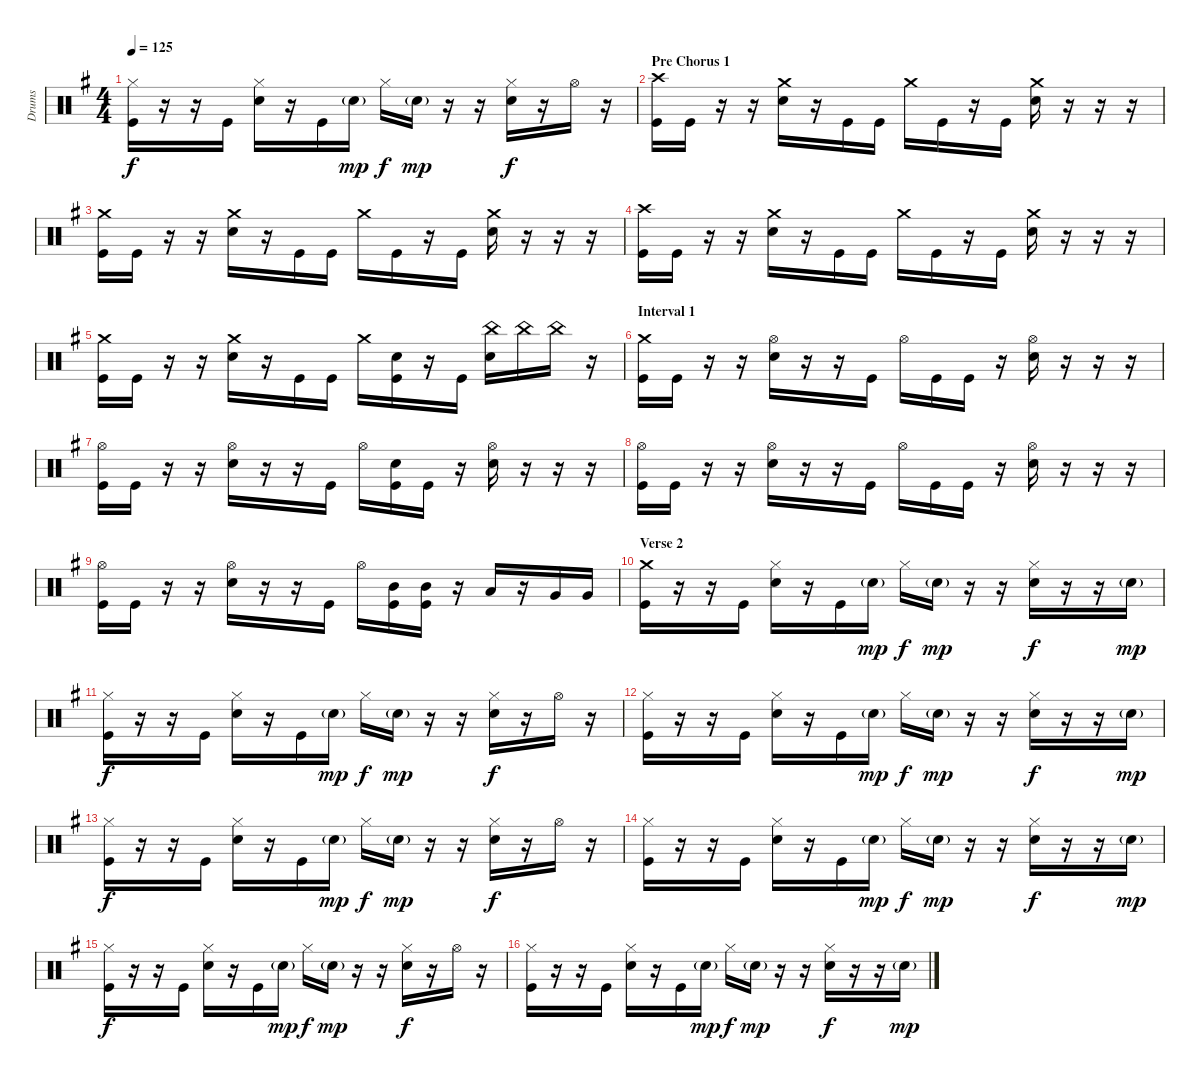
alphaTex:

\track ("Drums" "Drums") {instrument percussion}
\staff {score}
\articulation defaults
\ts (4 4)
\tempo 125
\clef neutral
\ks eminor
("Hi-Hat (closed)" "Kick (hit)").16{dy f} r.16 r.16 "Kick (hit)".16 ("Hi-Hat (closed)" "Electric Snare (hit)").16 r.16 "Kick (hit)".16 "Electric Snare (hit)"{g}.16{dy mp} "Hi-Hat (closed)".16{dy f} "Electric Snare (hit)"{g}.16{dy mp} r.16 r.16 ("Hi-Hat (closed)" "Electric Snare (hit)").16{dy f} r.16 "Hi-Hat (open)".16 r.16 |
\section ("" "Pre Chorus 1")
("Crash high (hit)" "Kick (hit)").16 "Kick (hit)".16 r.16 r.16 ("Crash medium (hit)" "Electric Snare (hit)").16 r.16 "Kick (hit)".16 "Kick (hit)".16 "Crash medium (hit)".16 "Kick (hit)".16 r.16 "Kick (hit)".16 ("Crash medium (hit)" "Electric Snare (hit)").16 r.16 r.16 r.16 |
("Crash medium (hit)" "Kick (hit)").16 "Kick (hit)".16 r.16 r.16 ("Crash medium (hit)" "Electric Snare (hit)").16 r.16 "Kick (hit)".16 "Kick (hit)".16 "Crash medium (hit)".16 "Kick (hit)".16 r.16 "Kick (hit)".16 ("Crash medium (hit)" "Electric Snare (hit)").16 r.16 r.16 r.16 |
("Crash high (hit)" "Kick (hit)").16 "Kick (hit)".16 r.16 r.16 ("Crash medium (hit)" "Electric Snare (hit)").16 r.16 "Kick (hit)".16 "Kick (hit)".16 "Crash medium (hit)".16 "Kick (hit)".16 r.16 "Kick (hit)".16 ("Crash medium (hit)" "Electric Snare (hit)").16 r.16 r.16 r.16 |
("Crash medium (hit)" "Kick (hit)").16 "Kick (hit)".16 r.16 r.16 ("Crash medium (hit)" "Electric Snare (hit)").16 r.16 "Kick (hit)".16 "Kick (hit)".16 "Crash medium (hit)".16 ("Electric Snare (hit)" "Kick (hit)").16 r.16 "Kick (hit)".16 ("China (hit)" "Electric Snare (hit)").16 "China (hit)".16 "China (hit)".16 r.16 |
\section ("" "Interval 1")
("Crash medium (hit)" "Kick (hit)").16 "Kick (hit)".16 r.16 r.16 ("Hi-Hat (open)" "Electric Snare (hit)").16 r.16 r.16 "Kick (hit)".16 "Hi-Hat (open)".16 "Kick (hit)".16 "Kick (hit)".16 r.16 ("Hi-Hat (open)" "Electric Snare (hit)").16 r.16 r.16 r.16 |
("Hi-Hat (open)" "Kick (hit)").16 "Kick (hit)".16 r.16 r.16 ("Hi-Hat (open)" "Electric Snare (hit)").16 r.16 r.16 "Kick (hit)".16 "Hi-Hat (open)".16 ("Electric Snare (hit)" "Kick (hit)").16 "Kick (hit)".16 r.16 ("Hi-Hat (open)" "Electric Snare (hit)").16 r.16 r.16 r.16 |
("Hi-Hat (open)" "Kick (hit)").16 "Kick (hit)".16 r.16 r.16 ("Hi-Hat (open)" "Electric Snare (hit)").16 r.16 r.16 "Kick (hit)".16 "Hi-Hat (open)".16 "Kick (hit)".16 "Kick (hit)".16 r.16 ("Hi-Hat (open)" "Electric Snare (hit)").16 r.16 r.16 r.16 |
("Hi-Hat (open)" "Kick (hit)").16 "Kick (hit)".16 r.16 r.16 ("Hi-Hat (open)" "Electric Snare (hit)").16 r.16 r.16 "Kick (hit)".16 "Hi-Hat (open)".16 ("Mid Tom (hit)" "Kick (hit)").16 ("Mid Tom (hit)" "Kick (hit)").16 r.16 "Low Tom (hit)".16 r.16 "Very Low Tom (hit)".16 "Very Low Tom (hit)".16 |
\section ("" "Verse 2")
("Crash medium (hit)" "Kick (hit)").16 r.16 r.16 "Kick (hit)".16 ("Hi-Hat (closed)" "Electric Snare (hit)").16 r.16 "Kick (hit)".16 "Electric Snare (hit)"{g}.16{dy mp} "Hi-Hat (closed)".16{dy f} "Electric Snare (hit)"{g}.16{dy mp} r.16 r.16 ("Hi-Hat (closed)" "Electric Snare (hit)").16{dy f} r.16 r.16 "Electric Snare (hit)"{g}.16{dy mp} |
("Hi-Hat (closed)" "Kick (hit)").16{dy f} r.16 r.16 "Kick (hit)".16 ("Hi-Hat (closed)" "Electric Snare (hit)").16 r.16 "Kick (hit)".16 "Electric Snare (hit)"{g}.16{dy mp} "Hi-Hat (closed)".16{dy f} "Electric Snare (hit)"{g}.16{dy mp} r.16 r.16 ("Hi-Hat (closed)" "Electric Snare (hit)").16{dy f} r.16 "Hi-Hat (open)".16 r.16 |
("Hi-Hat (closed)" "Kick (hit)").16 r.16 r.16 "Kick (hit)".16 ("Hi-Hat (closed)" "Electric Snare (hit)").16 r.16 "Kick (hit)".16 "Electric Snare (hit)"{g}.16{dy mp} "Hi-Hat (closed)".16{dy f} "Electric Snare (hit)"{g}.16{dy mp} r.16 r.16 ("Hi-Hat (closed)" "Electric Snare (hit)").16{dy f} r.16 r.16 "Electric Snare (hit)"{g}.16{dy mp} |
("Hi-Hat (closed)" "Kick (hit)").16{dy f} r.16 r.16 "Kick (hit)".16 ("Hi-Hat (closed)" "Electric Snare (hit)").16 r.16 "Kick (hit)".16 "Electric Snare (hit)"{g}.16{dy mp} "Hi-Hat (closed)".16{dy f} "Electric Snare (hit)"{g}.16{dy mp} r.16 r.16 ("Hi-Hat (closed)" "Electric Snare (hit)").16{dy f} r.16 "Hi-Hat (open)".16 r.16 |
("Hi-Hat (closed)" "Kick (hit)").16 r.16 r.16 "Kick (hit)".16 ("Hi-Hat (closed)" "Electric Snare (hit)").16 r.16 "Kick (hit)".16 "Electric Snare (hit)"{g}.16{dy mp} "Hi-Hat (closed)".16{dy f} "Electric Snare (hit)"{g}.16{dy mp} r.16 r.16 ("Hi-Hat (closed)" "Electric Snare (hit)").16{dy f} r.16 r.16 "Electric Snare (hit)"{g}.16{dy mp} |
("Hi-Hat (closed)" "Kick (hit)").16{dy f} r.16 r.16 "Kick (hit)".16 ("Hi-Hat (closed)" "Electric Snare (hit)").16 r.16 "Kick (hit)".16 "Electric Snare (hit)"{g}.16{dy mp} "Hi-Hat (closed)".16{dy f} "Electric Snare (hit)"{g}.16{dy mp} r.16 r.16 ("Hi-Hat (closed)" "Electric Snare (hit)").16{dy f} r.16 "Hi-Hat (open)".16 r.16 |
("Hi-Hat (closed)" "Kick (hit)").16 r.16 r.16 "Kick (hit)".16 ("Hi-Hat (closed)" "Electric Snare (hit)").16 r.16 "Kick (hit)".16 "Electric Snare (hit)"{g}.16{dy mp} "Hi-Hat (closed)".16{dy f} "Electric Snare (hit)"{g}.16{dy mp} r.16 r.16 ("Hi-Hat (closed)" "Electric Snare (hit)").16{dy f} r.16 r.16 "Electric Snare (hit)"{g}.16{dy mp}
